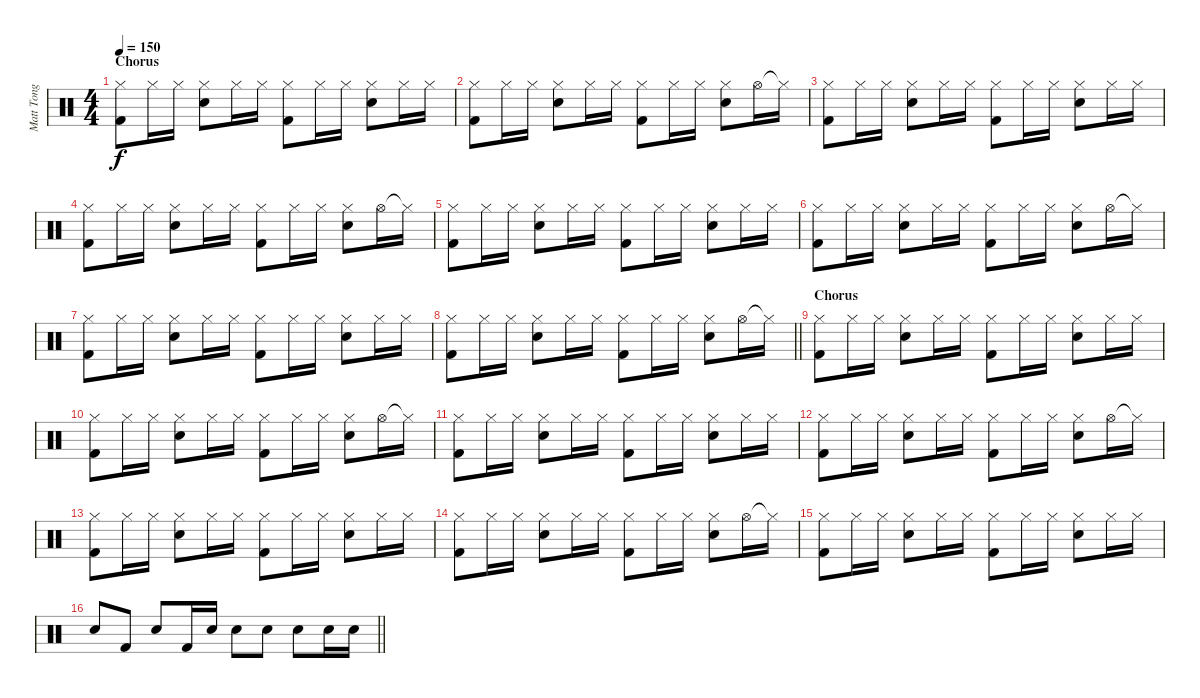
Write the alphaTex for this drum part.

\track ("Matt Tong" "Matt Tong") {instrument percussion}
\staff {score}
\articulation defaults
\ts (4 4)
\section ("" "Chorus")
\tempo 150
\clef neutral
\ks c
("Hi-Hat (closed)" "Kick (hit) 2").8{dy f} "Hi-Hat (closed)".16 "Hi-Hat (closed)".16 ("Hi-Hat (closed)" "Electric Snare (hit)").8 "Hi-Hat (closed)".16 "Hi-Hat (closed)".16 ("Hi-Hat (closed)" "Kick (hit) 2").8 "Hi-Hat (closed)".16 "Hi-Hat (closed)".16 ("Hi-Hat (closed)" "Electric Snare (hit)").8 "Hi-Hat (closed)".16 "Hi-Hat (closed)".16 |
("Hi-Hat (closed)" "Kick (hit) 2").8 "Hi-Hat (closed)".16 "Hi-Hat (closed)".16 ("Hi-Hat (closed)" "Electric Snare (hit)").8 "Hi-Hat (closed)".16 "Hi-Hat (closed)".16 ("Hi-Hat (closed)" "Kick (hit) 2").8 "Hi-Hat (closed)".16 "Hi-Hat (closed)".16 ("Hi-Hat (closed)" "Electric Snare (hit)").8 "Hi-Hat (open)".16 "Hi-Hat (closed)"{t}.16 |
("Hi-Hat (closed)" "Kick (hit) 2").8 "Hi-Hat (closed)".16 "Hi-Hat (closed)".16 ("Hi-Hat (closed)" "Electric Snare (hit)").8 "Hi-Hat (closed)".16 "Hi-Hat (closed)".16 ("Hi-Hat (closed)" "Kick (hit) 2").8 "Hi-Hat (closed)".16 "Hi-Hat (closed)".16 ("Hi-Hat (closed)" "Electric Snare (hit)").8 "Hi-Hat (closed)".16 "Hi-Hat (closed)".16 |
("Hi-Hat (closed)" "Kick (hit) 2").8 "Hi-Hat (closed)".16 "Hi-Hat (closed)".16 ("Hi-Hat (closed)" "Electric Snare (hit)").8 "Hi-Hat (closed)".16 "Hi-Hat (closed)".16 ("Hi-Hat (closed)" "Kick (hit) 2").8 "Hi-Hat (closed)".16 "Hi-Hat (closed)".16 ("Hi-Hat (closed)" "Electric Snare (hit)").8 "Hi-Hat (open)".16 "Hi-Hat (closed)"{t}.16 |
("Hi-Hat (closed)" "Kick (hit) 2").8 "Hi-Hat (closed)".16 "Hi-Hat (closed)".16 ("Hi-Hat (closed)" "Electric Snare (hit)").8 "Hi-Hat (closed)".16 "Hi-Hat (closed)".16 ("Hi-Hat (closed)" "Kick (hit) 2").8 "Hi-Hat (closed)".16 "Hi-Hat (closed)".16 ("Hi-Hat (closed)" "Electric Snare (hit)").8 "Hi-Hat (closed)".16 "Hi-Hat (closed)".16 |
("Hi-Hat (closed)" "Kick (hit) 2").8 "Hi-Hat (closed)".16 "Hi-Hat (closed)".16 ("Hi-Hat (closed)" "Electric Snare (hit)").8 "Hi-Hat (closed)".16 "Hi-Hat (closed)".16 ("Hi-Hat (closed)" "Kick (hit) 2").8 "Hi-Hat (closed)".16 "Hi-Hat (closed)".16 ("Hi-Hat (closed)" "Electric Snare (hit)").8 "Hi-Hat (open)".16 "Hi-Hat (closed)"{t}.16 |
("Hi-Hat (closed)" "Kick (hit) 2").8 "Hi-Hat (closed)".16 "Hi-Hat (closed)".16 ("Hi-Hat (closed)" "Electric Snare (hit)").8 "Hi-Hat (closed)".16 "Hi-Hat (closed)".16 ("Hi-Hat (closed)" "Kick (hit) 2").8 "Hi-Hat (closed)".16 "Hi-Hat (closed)".16 ("Hi-Hat (closed)" "Electric Snare (hit)").8 "Hi-Hat (closed)".16 "Hi-Hat (closed)".16 |
\barLineRight lightlight
("Hi-Hat (closed)" "Kick (hit) 2").8 "Hi-Hat (closed)".16 "Hi-Hat (closed)".16 ("Hi-Hat (closed)" "Electric Snare (hit)").8 "Hi-Hat (closed)".16 "Hi-Hat (closed)".16 ("Hi-Hat (closed)" "Kick (hit) 2").8 "Hi-Hat (closed)".16 "Hi-Hat (closed)".16 ("Hi-Hat (closed)" "Electric Snare (hit)").8 "Hi-Hat (open)".16 "Hi-Hat (closed)"{t}.16 |
\section ("" "Chorus")
("Hi-Hat (closed)" "Kick (hit) 2").8 "Hi-Hat (closed)".16 "Hi-Hat (closed)".16 ("Hi-Hat (closed)" "Electric Snare (hit)").8 "Hi-Hat (closed)".16 "Hi-Hat (closed)".16 ("Hi-Hat (closed)" "Kick (hit) 2").8 "Hi-Hat (closed)".16 "Hi-Hat (closed)".16 ("Hi-Hat (closed)" "Electric Snare (hit)").8 "Hi-Hat (closed)".16 "Hi-Hat (closed)".16 |
("Hi-Hat (closed)" "Kick (hit) 2").8 "Hi-Hat (closed)".16 "Hi-Hat (closed)".16 ("Hi-Hat (closed)" "Electric Snare (hit)").8 "Hi-Hat (closed)".16 "Hi-Hat (closed)".16 ("Hi-Hat (closed)" "Kick (hit) 2").8 "Hi-Hat (closed)".16 "Hi-Hat (closed)".16 ("Hi-Hat (closed)" "Electric Snare (hit)").8 "Hi-Hat (open)".16 "Hi-Hat (closed)"{t}.16 |
("Hi-Hat (closed)" "Kick (hit) 2").8 "Hi-Hat (closed)".16 "Hi-Hat (closed)".16 ("Hi-Hat (closed)" "Electric Snare (hit)").8 "Hi-Hat (closed)".16 "Hi-Hat (closed)".16 ("Hi-Hat (closed)" "Kick (hit) 2").8 "Hi-Hat (closed)".16 "Hi-Hat (closed)".16 ("Hi-Hat (closed)" "Electric Snare (hit)").8 "Hi-Hat (closed)".16 "Hi-Hat (closed)".16 |
("Hi-Hat (closed)" "Kick (hit) 2").8 "Hi-Hat (closed)".16 "Hi-Hat (closed)".16 ("Hi-Hat (closed)" "Electric Snare (hit)").8 "Hi-Hat (closed)".16 "Hi-Hat (closed)".16 ("Hi-Hat (closed)" "Kick (hit) 2").8 "Hi-Hat (closed)".16 "Hi-Hat (closed)".16 ("Hi-Hat (closed)" "Electric Snare (hit)").8 "Hi-Hat (open)".16 "Hi-Hat (closed)"{t}.16 |
("Hi-Hat (closed)" "Kick (hit) 2").8 "Hi-Hat (closed)".16 "Hi-Hat (closed)".16 ("Hi-Hat (closed)" "Electric Snare (hit)").8 "Hi-Hat (closed)".16 "Hi-Hat (closed)".16 ("Hi-Hat (closed)" "Kick (hit) 2").8 "Hi-Hat (closed)".16 "Hi-Hat (closed)".16 ("Hi-Hat (closed)" "Electric Snare (hit)").8 "Hi-Hat (closed)".16 "Hi-Hat (closed)".16 |
("Hi-Hat (closed)" "Kick (hit) 2").8 "Hi-Hat (closed)".16 "Hi-Hat (closed)".16 ("Hi-Hat (closed)" "Electric Snare (hit)").8 "Hi-Hat (closed)".16 "Hi-Hat (closed)".16 ("Hi-Hat (closed)" "Kick (hit) 2").8 "Hi-Hat (closed)".16 "Hi-Hat (closed)".16 ("Hi-Hat (closed)" "Electric Snare (hit)").8 "Hi-Hat (open)".16 "Hi-Hat (closed)"{t}.16 |
("Hi-Hat (closed)" "Kick (hit) 2").8 "Hi-Hat (closed)".16 "Hi-Hat (closed)".16 ("Hi-Hat (closed)" "Electric Snare (hit)").8 "Hi-Hat (closed)".16 "Hi-Hat (closed)".16 ("Hi-Hat (closed)" "Kick (hit) 2").8 "Hi-Hat (closed)".16 "Hi-Hat (closed)".16 ("Hi-Hat (closed)" "Electric Snare (hit)").8 "Hi-Hat (closed)".16 "Hi-Hat (closed)".16 |
\barLineRight lightlight "Electric Snare (hit)".8 "Kick (hit) 2".8 "Electric Snare (hit)".8 "Kick (hit) 2".16 "Electric Snare (hit)".16 "Electric Snare (hit)".8 "Electric Snare (hit)".8 "Electric Snare (hit)".8 "Electric Snare (hit)".16 "Electric Snare (hit)".16
